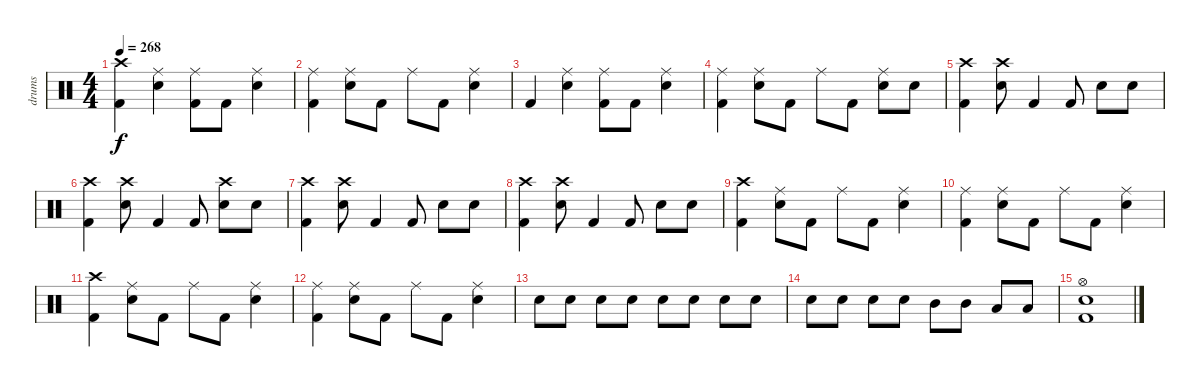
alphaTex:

\track ("drums" "drums") {instrument percussion}
\staff {score}
\articulation defaults
\ts (4 4)
\tempo 268
\clef neutral
\ks c
("Crash high (hit)" "Kick (hit) 2").4{dy f} ("Ride (middle)" "Electric Snare (hit)").4 ("Ride (middle)" "Kick (hit) 2").8 "Kick (hit) 2".8 ("Ride (middle)" "Electric Snare (hit)").4 |
("Ride (middle)" "Kick (hit) 2").4 ("Ride (middle)" "Electric Snare (hit)").8 "Kick (hit) 2".8 "Ride (middle)".8 "Kick (hit) 2".8 ("Ride (middle)" "Electric Snare (hit)").4 |
"Kick (hit) 2".4 ("Ride (middle)" "Electric Snare (hit)").4 ("Ride (middle)" "Kick (hit) 2").8 "Kick (hit) 2".8 ("Ride (middle)" "Electric Snare (hit)").4 |
("Ride (middle)" "Kick (hit) 2").4 ("Ride (middle)" "Electric Snare (hit)").8 "Kick (hit) 2".8 "Ride (middle)".8 "Kick (hit) 2".8 ("Ride (middle)" "Electric Snare (hit)").8 "Electric Snare (hit)".8 |
("Crash high (hit)" "Kick (hit) 2").4 ("Crash high (hit)" "Electric Snare (hit)").8 "Kick (hit) 2".4 "Kick (hit) 2".8 "Electric Snare (hit)".8 "Electric Snare (hit)".8 |
("Crash high (hit)" "Kick (hit) 2").4 ("Crash high (hit)" "Electric Snare (hit)").8 "Kick (hit) 2".4 "Kick (hit) 2".8 ("Crash high (hit)" "Electric Snare (hit)").8 "Electric Snare (hit)".8 |
("Crash high (hit)" "Kick (hit) 2").4 ("Crash high (hit)" "Electric Snare (hit)").8 "Kick (hit) 2".4 "Kick (hit) 2".8 "Electric Snare (hit)".8 "Electric Snare (hit)".8 |
("Crash high (hit)" "Kick (hit) 2").4 ("Crash high (hit)" "Electric Snare (hit)").8 "Kick (hit) 2".4 "Kick (hit) 2".8 "Electric Snare (hit)".8 "Electric Snare (hit)".8 |
("Crash high (hit)" "Kick (hit) 2").4 ("Ride (middle)" "Electric Snare (hit)").8 "Kick (hit) 2".8 "Ride (middle)".8 "Kick (hit) 2".8 ("Ride (middle)" "Electric Snare (hit)").4 |
("Ride (middle)" "Kick (hit) 2").4 ("Ride (middle)" "Electric Snare (hit)").8 "Kick (hit) 2".8 "Ride (middle)".8 "Kick (hit) 2".8 ("Ride (middle)" "Electric Snare (hit)").4 |
("Crash high (hit)" "Kick (hit) 2").4 ("Ride (middle)" "Electric Snare (hit)").8 "Kick (hit) 2".8 "Ride (middle)".8 "Kick (hit) 2".8 ("Ride (middle)" "Electric Snare (hit)").4 |
("Ride (middle)" "Kick (hit) 2").4 ("Ride (middle)" "Electric Snare (hit)").8 "Kick (hit) 2".8 "Ride (middle)".8 "Kick (hit) 2".8 ("Ride (middle)" "Electric Snare (hit)").4 |
"Electric Snare (hit)".8 "Electric Snare (hit)".8 "Electric Snare (hit)".8 "Electric Snare (hit)".8 "Electric Snare (hit)".8 "Electric Snare (hit)".8 "Electric Snare (hit)".8 "Electric Snare (hit)".8 |
"Electric Snare (hit)".8 "Electric Snare (hit)".8 "Electric Snare (hit)".8 "Electric Snare (hit)".8 "Mid Tom (hit)".8 "Mid Tom (hit)".8 "Low Tom (hit)".8 "Low Tom (hit)".8 |
("Hi-Hat (open)" "Electric Snare (hit)" "Kick (hit) 2").1
